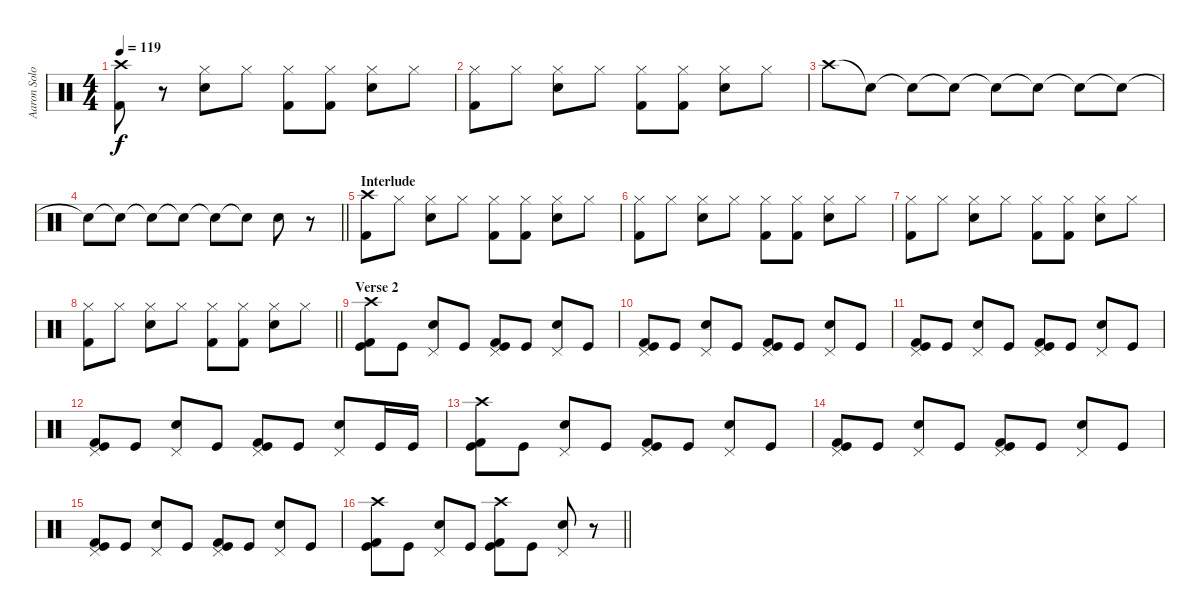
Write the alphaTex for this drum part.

\track ("Aaron Solowoniuk (Drums)" "Aaron Solo") {instrument percussion}
\staff {score}
\articulation defaults
\ts (4 4)
\tempo 119
\clef neutral
\ks c
("Crash high (hit)" "Kick (hit) 2").8{dy f} r.8 ("Hi-Hat (closed)" "Electric Snare (hit)").8 "Hi-Hat (closed)".8 ("Hi-Hat (closed)" "Kick (hit) 2").8 ("Hi-Hat (closed)" "Kick (hit) 2").8 ("Hi-Hat (closed)" "Electric Snare (hit)").8 "Hi-Hat (closed)".8 |
("Hi-Hat (closed)" "Kick (hit) 2").8 "Hi-Hat (closed)".8 ("Hi-Hat (closed)" "Electric Snare (hit)").8 "Hi-Hat (closed)".8 ("Hi-Hat (closed)" "Kick (hit) 2").8 ("Hi-Hat (closed)" "Kick (hit) 2").8 ("Hi-Hat (closed)" "Electric Snare (hit)").8 "Hi-Hat (closed)".8 |
"Crash high (hit)".8{volume 12} "Snare (hit)"{t}.8 "Snare (hit)"{t}.8 "Snare (hit)"{t}.8 "Snare (hit)"{t}.8 "Snare (hit)"{t}.8 "Snare (hit)"{t}.8 "Snare (hit)"{t}.8 |
\barLineRight lightlight "Snare (hit)"{t}.8 "Snare (hit)"{t}.8 "Snare (hit)"{t}.8 "Snare (hit)"{t}.8 "Snare (hit)"{t}.8 "Snare (hit)"{t}.8 "Electric Snare (hit)".8
r.8 |
\section ("" "Interlude")
("Crash high (hit)" "Kick (hit) 2").8 "Hi-Hat (closed)".8 ("Hi-Hat (closed)" "Electric Snare (hit)").8 "Hi-Hat (closed)".8 ("Hi-Hat (closed)" "Kick (hit) 2").8 ("Hi-Hat (closed)" "Kick (hit) 2").8 ("Hi-Hat (closed)" "Electric Snare (hit)").8 "Hi-Hat (closed)".8 |
("Hi-Hat (closed)" "Kick (hit) 2").8 "Hi-Hat (closed)".8 ("Hi-Hat (closed)" "Electric Snare (hit)").8 "Hi-Hat (closed)".8 ("Hi-Hat (closed)" "Kick (hit) 2").8 ("Hi-Hat (closed)" "Kick (hit) 2").8 ("Hi-Hat (closed)" "Electric Snare (hit)").8 "Hi-Hat (closed)".8 |
("Hi-Hat (closed)" "Kick (hit) 2").8 "Hi-Hat (closed)".8 ("Hi-Hat (closed)" "Electric Snare (hit)").8 "Hi-Hat (closed)".8 ("Hi-Hat (closed)" "Kick (hit) 2").8 ("Hi-Hat (closed)" "Kick (hit) 2").8 ("Hi-Hat (closed)" "Electric Snare (hit)").8 "Hi-Hat (closed)".8 |
\barLineRight lightlight
("Hi-Hat (closed)" "Kick (hit) 2").8 "Hi-Hat (closed)".8 ("Hi-Hat (closed)" "Electric Snare (hit)").8 "Hi-Hat (closed)".8 ("Hi-Hat (closed)" "Kick (hit) 2").8 ("Hi-Hat (closed)" "Kick (hit) 2").8 ("Hi-Hat (closed)" "Electric Snare (hit)").8 "Hi-Hat (closed)".8 |
\section ("" "Verse 2")
("Crash high (hit)" "Kick (hit)" "Kick (hit) 2").8 "Kick (hit)".8 ("Pedal Hi-Hat (hit)" "Electric Snare (hit)").8 "Kick (hit)".8 ("Pedal Hi-Hat (hit)" "Kick (hit)" "Kick (hit) 2").8 "Kick (hit)".8 ("Pedal Hi-Hat (hit)" "Electric Snare (hit)").8 "Kick (hit)".8 |
("Pedal Hi-Hat (hit)" "Kick (hit)" "Kick (hit) 2").8 "Kick (hit)".8 ("Pedal Hi-Hat (hit)" "Electric Snare (hit)").8 "Kick (hit)".8 ("Pedal Hi-Hat (hit)" "Kick (hit)" "Kick (hit) 2").8 "Kick (hit)".8 ("Pedal Hi-Hat (hit)" "Electric Snare (hit)").8 "Kick (hit)".8 |
("Pedal Hi-Hat (hit)" "Kick (hit)" "Kick (hit) 2").8 "Kick (hit)".8 ("Pedal Hi-Hat (hit)" "Electric Snare (hit)").8 "Kick (hit)".8 ("Pedal Hi-Hat (hit)" "Kick (hit)" "Kick (hit) 2").8 "Kick (hit)".8 ("Pedal Hi-Hat (hit)" "Electric Snare (hit)").8 "Kick (hit)".8 |
("Pedal Hi-Hat (hit)" "Kick (hit)" "Kick (hit) 2").8 "Kick (hit)".8 ("Pedal Hi-Hat (hit)" "Electric Snare (hit)").8 "Kick (hit)".8 ("Pedal Hi-Hat (hit)" "Kick (hit)" "Kick (hit) 2").8 "Kick (hit)".8 ("Pedal Hi-Hat (hit)" "Electric Snare (hit)").8 "Kick (hit)".16 "Kick (hit)".16 |
("Crash high (hit)" "Kick (hit)" "Kick (hit) 2").8 "Kick (hit)".8 ("Pedal Hi-Hat (hit)" "Electric Snare (hit)").8 "Kick (hit)".8 ("Pedal Hi-Hat (hit)" "Kick (hit)" "Kick (hit) 2").8 "Kick (hit)".8 ("Pedal Hi-Hat (hit)" "Electric Snare (hit)").8 "Kick (hit)".8 |
("Pedal Hi-Hat (hit)" "Kick (hit)" "Kick (hit) 2").8 "Kick (hit)".8 ("Pedal Hi-Hat (hit)" "Electric Snare (hit)").8 "Kick (hit)".8 ("Pedal Hi-Hat (hit)" "Kick (hit)" "Kick (hit) 2").8 "Kick (hit)".8 ("Pedal Hi-Hat (hit)" "Electric Snare (hit)").8 "Kick (hit)".8 |
("Pedal Hi-Hat (hit)" "Kick (hit)" "Kick (hit) 2").8 "Kick (hit)".8 ("Pedal Hi-Hat (hit)" "Electric Snare (hit)").8 "Kick (hit)".8 ("Pedal Hi-Hat (hit)" "Kick (hit)" "Kick (hit) 2").8 "Kick (hit)".8 ("Pedal Hi-Hat (hit)" "Electric Snare (hit)").8 "Kick (hit)".8 |
\barLineRight lightlight
("Crash high (hit)" "Kick (hit)" "Kick (hit) 2").8 "Kick (hit)".8 ("Pedal Hi-Hat (hit)" "Electric Snare (hit)").8 "Kick (hit)".8 ("Crash high (hit)" "Kick (hit)" "Kick (hit) 2").8 "Kick (hit)".8 ("Pedal Hi-Hat (hit)" "Electric Snare (hit)").8 r.8
